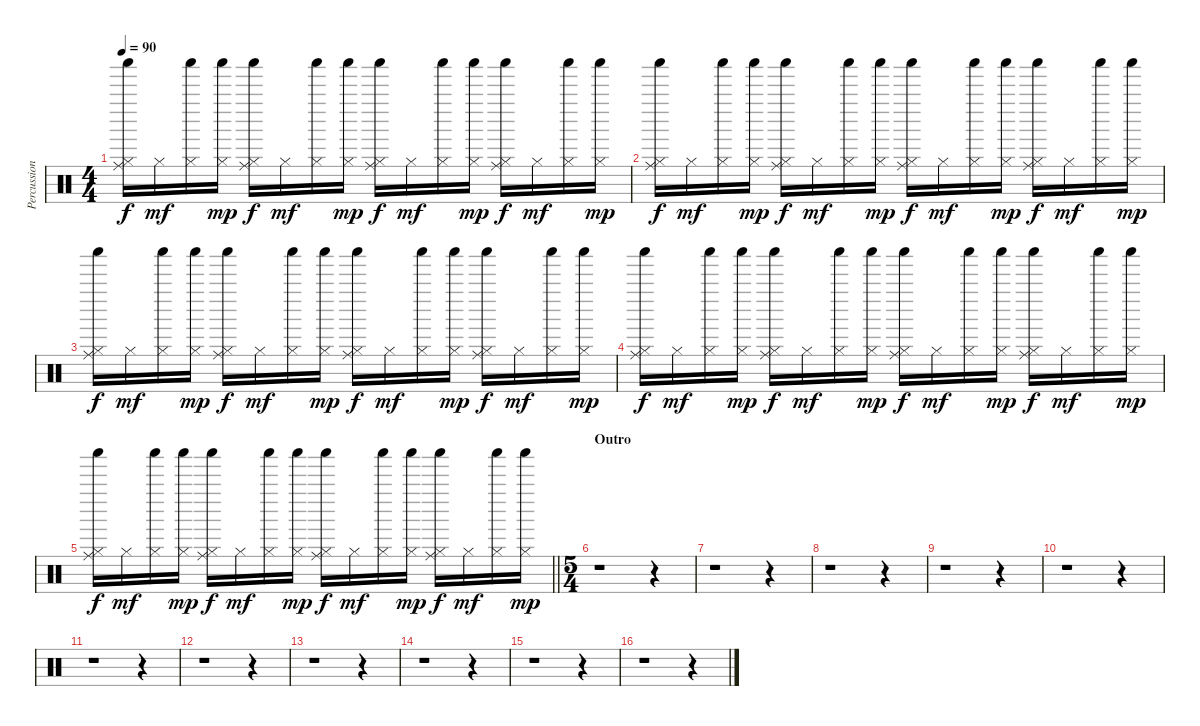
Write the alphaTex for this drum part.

\track ("Percussion (Chris Maitland)" "Percussion") {instrument percussion}
\staff {score}
\articulation defaults
\ts (4 4)
\tempo 90
\clef neutral
\ks c
("Ride (middle)" "Shaker (hit)" "Hi-Hat (closed)").16{dy f} "Hi-Hat (closed)".16{dy mf} ("Shaker (hit)" "Hi-Hat (closed)").16 ("Shaker (hit)" "Hi-Hat (closed)").16{dy mp} ("Ride (middle)" "Shaker (hit)" "Hi-Hat (closed)").16{dy f} "Hi-Hat (closed)".16{dy mf} ("Shaker (hit)" "Hi-Hat (closed)").16 ("Shaker (hit)" "Hi-Hat (closed)").16{dy mp} ("Ride (middle)" "Shaker (hit)" "Hi-Hat (closed)").16{dy f} "Hi-Hat (closed)".16{dy mf} ("Shaker (hit)" "Hi-Hat (closed)").16 ("Shaker (hit)" "Hi-Hat (closed)").16{dy mp} ("Ride (middle)" "Shaker (hit)" "Hi-Hat (closed)").16{dy f} "Hi-Hat (closed)".16{dy mf} ("Shaker (hit)" "Hi-Hat (closed)").16 ("Shaker (hit)" "Hi-Hat (closed)").16{dy mp} |
("Ride (middle)" "Shaker (hit)" "Hi-Hat (closed)").16{dy f} "Hi-Hat (closed)".16{dy mf} ("Shaker (hit)" "Hi-Hat (closed)").16 ("Shaker (hit)" "Hi-Hat (closed)").16{dy mp} ("Ride (middle)" "Shaker (hit)" "Hi-Hat (closed)").16{dy f} "Hi-Hat (closed)".16{dy mf} ("Shaker (hit)" "Hi-Hat (closed)").16 ("Shaker (hit)" "Hi-Hat (closed)").16{dy mp} ("Ride (middle)" "Shaker (hit)" "Hi-Hat (closed)").16{dy f} "Hi-Hat (closed)".16{dy mf} ("Shaker (hit)" "Hi-Hat (closed)").16 ("Shaker (hit)" "Hi-Hat (closed)").16{dy mp} ("Ride (middle)" "Shaker (hit)" "Hi-Hat (closed)").16{dy f} "Hi-Hat (closed)".16{dy mf} ("Shaker (hit)" "Hi-Hat (closed)").16 ("Shaker (hit)" "Hi-Hat (closed)").16{dy mp} |
("Ride (middle)" "Shaker (hit)" "Hi-Hat (closed)").16{dy f} "Hi-Hat (closed)".16{dy mf} ("Shaker (hit)" "Hi-Hat (closed)").16 ("Shaker (hit)" "Hi-Hat (closed)").16{dy mp} ("Ride (middle)" "Shaker (hit)" "Hi-Hat (closed)").16{dy f} "Hi-Hat (closed)".16{dy mf} ("Shaker (hit)" "Hi-Hat (closed)").16 ("Shaker (hit)" "Hi-Hat (closed)").16{dy mp} ("Ride (middle)" "Shaker (hit)" "Hi-Hat (closed)").16{dy f} "Hi-Hat (closed)".16{dy mf} ("Shaker (hit)" "Hi-Hat (closed)").16 ("Shaker (hit)" "Hi-Hat (closed)").16{dy mp} ("Ride (middle)" "Shaker (hit)" "Hi-Hat (closed)").16{dy f} "Hi-Hat (closed)".16{dy mf} ("Shaker (hit)" "Hi-Hat (closed)").16 ("Shaker (hit)" "Hi-Hat (closed)").16{dy mp} |
("Ride (middle)" "Shaker (hit)" "Hi-Hat (closed)").16{dy f} "Hi-Hat (closed)".16{dy mf} ("Shaker (hit)" "Hi-Hat (closed)").16 ("Shaker (hit)" "Hi-Hat (closed)").16{dy mp} ("Ride (middle)" "Shaker (hit)" "Hi-Hat (closed)").16{dy f} "Hi-Hat (closed)".16{dy mf} ("Shaker (hit)" "Hi-Hat (closed)").16 ("Shaker (hit)" "Hi-Hat (closed)").16{dy mp} ("Ride (middle)" "Shaker (hit)" "Hi-Hat (closed)").16{dy f} "Hi-Hat (closed)".16{dy mf} ("Shaker (hit)" "Hi-Hat (closed)").16 ("Shaker (hit)" "Hi-Hat (closed)").16{dy mp} ("Ride (middle)" "Shaker (hit)" "Hi-Hat (closed)").16{dy f} "Hi-Hat (closed)".16{dy mf} ("Shaker (hit)" "Hi-Hat (closed)").16 ("Shaker (hit)" "Hi-Hat (closed)").16{dy mp} |
\barLineRight lightlight
("Ride (middle)" "Shaker (hit)" "Hi-Hat (closed)").16{dy f} "Hi-Hat (closed)".16{dy mf} ("Shaker (hit)" "Hi-Hat (closed)").16 ("Shaker (hit)" "Hi-Hat (closed)").16{dy mp} ("Ride (middle)" "Shaker (hit)" "Hi-Hat (closed)").16{dy f} "Hi-Hat (closed)".16{dy mf} ("Shaker (hit)" "Hi-Hat (closed)").16 ("Shaker (hit)" "Hi-Hat (closed)").16{dy mp} ("Ride (middle)" "Shaker (hit)" "Hi-Hat (closed)").16{dy f} "Hi-Hat (closed)".16{dy mf} ("Shaker (hit)" "Hi-Hat (closed)").16 ("Shaker (hit)" "Hi-Hat (closed)").16{dy mp} ("Ride (middle)" "Shaker (hit)" "Hi-Hat (closed)").16{dy f} "Hi-Hat (closed)".16{dy mf} ("Shaker (hit)" "Hi-Hat (closed)").16 ("Shaker (hit)" "Hi-Hat (closed)").16{dy mp} |
\ts (5 4)
\section ("" "Outro")
r.1 r.4 |
r.1 r.4 |
r.1 r.4 |
r.1 r.4 |
r.1 r.4 |
r.1 r.4 |
r.1 r.4 |
r.1 r.4 |
r.1 r.4 |
r.1 r.4 |
r.1 r.4
